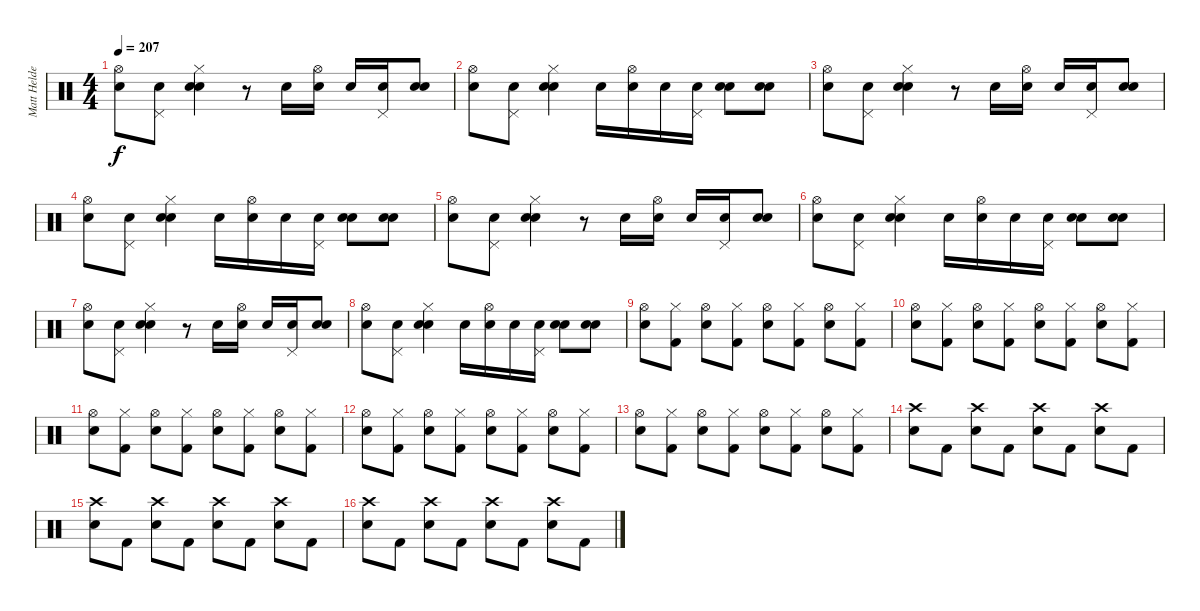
\track ("Matt Helders - Drums" "Matt Helde") {instrument percussion}
\staff {score}
\articulation defaults
\ts (4 4)
\tempo 207
\clef neutral
\ks c
("Hi-Hat (open)" "Electric Snare (hit)").8{dy f} ("Pedal Hi-Hat (hit)" "Electric Snare (hit)").8 ("Hi-Hat (closed)" "Electric Snare (hit)" "Electric Snare (hit)").4 r.8 "Electric Snare (hit)".16 ("Hi-Hat (open)" "Electric Snare (hit)").16 "Electric Snare (hit)".16 ("Pedal Hi-Hat (hit)" "Electric Snare (hit)").16 ("Electric Snare (hit)" "Electric Snare (hit)").8 |
("Hi-Hat (open)" "Electric Snare (hit)").8 ("Pedal Hi-Hat (hit)" "Electric Snare (hit)").8 ("Hi-Hat (closed)" "Electric Snare (hit)" "Electric Snare (hit)").4 "Electric Snare (hit)".16 ("Hi-Hat (open)" "Electric Snare (hit)").16 "Electric Snare (hit)".16 ("Pedal Hi-Hat (hit)" "Electric Snare (hit)").16 ("Electric Snare (hit)" "Electric Snare (hit)").8 ("Electric Snare (hit)" "Electric Snare (hit)").8 |
("Hi-Hat (open)" "Electric Snare (hit)").8 ("Pedal Hi-Hat (hit)" "Electric Snare (hit)").8 ("Hi-Hat (closed)" "Electric Snare (hit)" "Electric Snare (hit)").4 r.8 "Electric Snare (hit)".16 ("Hi-Hat (open)" "Electric Snare (hit)").16 "Electric Snare (hit)".16 ("Pedal Hi-Hat (hit)" "Electric Snare (hit)").16 ("Electric Snare (hit)" "Electric Snare (hit)").8 |
("Hi-Hat (open)" "Electric Snare (hit)").8 ("Pedal Hi-Hat (hit)" "Electric Snare (hit)").8 ("Hi-Hat (closed)" "Electric Snare (hit)" "Electric Snare (hit)").4 "Electric Snare (hit)".16 ("Hi-Hat (open)" "Electric Snare (hit)").16 "Electric Snare (hit)".16 ("Pedal Hi-Hat (hit)" "Electric Snare (hit)").16 ("Electric Snare (hit)" "Electric Snare (hit)").8 ("Electric Snare (hit)" "Electric Snare (hit)").8 |
("Hi-Hat (open)" "Electric Snare (hit)").8 ("Pedal Hi-Hat (hit)" "Electric Snare (hit)").8 ("Hi-Hat (closed)" "Electric Snare (hit)" "Electric Snare (hit)").4 r.8 "Electric Snare (hit)".16 ("Hi-Hat (open)" "Electric Snare (hit)").16 "Electric Snare (hit)".16 ("Pedal Hi-Hat (hit)" "Electric Snare (hit)").16 ("Electric Snare (hit)" "Electric Snare (hit)").8 |
("Hi-Hat (open)" "Electric Snare (hit)").8 ("Pedal Hi-Hat (hit)" "Electric Snare (hit)").8 ("Hi-Hat (closed)" "Electric Snare (hit)" "Electric Snare (hit)").4 "Electric Snare (hit)".16 ("Hi-Hat (open)" "Electric Snare (hit)").16 "Electric Snare (hit)".16 ("Pedal Hi-Hat (hit)" "Electric Snare (hit)").16 ("Electric Snare (hit)" "Electric Snare (hit)").8 ("Electric Snare (hit)" "Electric Snare (hit)").8 |
("Hi-Hat (open)" "Electric Snare (hit)").8 ("Pedal Hi-Hat (hit)" "Electric Snare (hit)").8 ("Hi-Hat (closed)" "Electric Snare (hit)" "Electric Snare (hit)").4 r.8 "Electric Snare (hit)".16 ("Hi-Hat (open)" "Electric Snare (hit)").16 "Electric Snare (hit)".16 ("Pedal Hi-Hat (hit)" "Electric Snare (hit)").16 ("Electric Snare (hit)" "Electric Snare (hit)").8 |
("Hi-Hat (open)" "Electric Snare (hit)").8 ("Pedal Hi-Hat (hit)" "Electric Snare (hit)").8 ("Hi-Hat (closed)" "Electric Snare (hit)" "Electric Snare (hit)").4 "Electric Snare (hit)".16 ("Hi-Hat (open)" "Electric Snare (hit)").16 "Electric Snare (hit)".16 ("Pedal Hi-Hat (hit)" "Electric Snare (hit)").16 ("Electric Snare (hit)" "Electric Snare (hit)").8 ("Electric Snare (hit)" "Electric Snare (hit)").8 |
("Hi-Hat (open)" "Electric Snare (hit)").8 ("Hi-Hat (closed)" "Kick (hit) 2").8 ("Hi-Hat (open)" "Electric Snare (hit)").8 ("Hi-Hat (closed)" "Kick (hit) 2").8 ("Hi-Hat (open)" "Electric Snare (hit)").8 ("Hi-Hat (closed)" "Kick (hit) 2").8 ("Hi-Hat (open)" "Electric Snare (hit)").8 ("Hi-Hat (closed)" "Kick (hit) 2").8 |
("Hi-Hat (open)" "Electric Snare (hit)").8 ("Hi-Hat (closed)" "Kick (hit) 2").8 ("Hi-Hat (open)" "Electric Snare (hit)").8 ("Hi-Hat (closed)" "Kick (hit) 2").8 ("Hi-Hat (open)" "Electric Snare (hit)").8 ("Hi-Hat (closed)" "Kick (hit) 2").8 ("Hi-Hat (open)" "Electric Snare (hit)").8 ("Hi-Hat (closed)" "Kick (hit) 2").8 |
("Hi-Hat (open)" "Electric Snare (hit)").8 ("Hi-Hat (closed)" "Kick (hit) 2").8 ("Hi-Hat (open)" "Electric Snare (hit)").8 ("Hi-Hat (closed)" "Kick (hit) 2").8 ("Hi-Hat (open)" "Electric Snare (hit)").8 ("Hi-Hat (closed)" "Kick (hit) 2").8 ("Hi-Hat (open)" "Electric Snare (hit)").8 ("Hi-Hat (closed)" "Kick (hit) 2").8 |
("Hi-Hat (open)" "Electric Snare (hit)").8 ("Hi-Hat (closed)" "Kick (hit) 2").8 ("Hi-Hat (open)" "Electric Snare (hit)").8 ("Hi-Hat (closed)" "Kick (hit) 2").8 ("Hi-Hat (open)" "Electric Snare (hit)").8 ("Hi-Hat (closed)" "Kick (hit) 2").8 ("Hi-Hat (open)" "Electric Snare (hit)").8 ("Hi-Hat (closed)" "Kick (hit) 2").8 |
("Hi-Hat (open)" "Electric Snare (hit)").8 ("Hi-Hat (closed)" "Kick (hit) 2").8 ("Hi-Hat (open)" "Electric Snare (hit)").8 ("Hi-Hat (closed)" "Kick (hit) 2").8 ("Hi-Hat (open)" "Electric Snare (hit)").8 ("Hi-Hat (closed)" "Kick (hit) 2").8 ("Hi-Hat (open)" "Electric Snare (hit)").8 ("Hi-Hat (closed)" "Kick (hit) 2").8 |
("Crash high (hit)" "Electric Snare (hit)").8 "Kick (hit) 2".8 ("Crash high (hit)" "Electric Snare (hit)").8 "Kick (hit) 2".8 ("Crash high (hit)" "Electric Snare (hit)").8 "Kick (hit) 2".8 ("Crash high (hit)" "Electric Snare (hit)").8 "Kick (hit) 2".8 |
("Crash high (hit)" "Electric Snare (hit)").8 "Kick (hit) 2".8 ("Crash high (hit)" "Electric Snare (hit)").8 "Kick (hit) 2".8 ("Crash high (hit)" "Electric Snare (hit)").8 "Kick (hit) 2".8 ("Crash high (hit)" "Electric Snare (hit)").8 "Kick (hit) 2".8 |
("Crash high (hit)" "Electric Snare (hit)").8 "Kick (hit) 2".8 ("Crash high (hit)" "Electric Snare (hit)").8 "Kick (hit) 2".8 ("Crash high (hit)" "Electric Snare (hit)").8 "Kick (hit) 2".8 ("Crash high (hit)" "Electric Snare (hit)").8 "Kick (hit) 2".8
